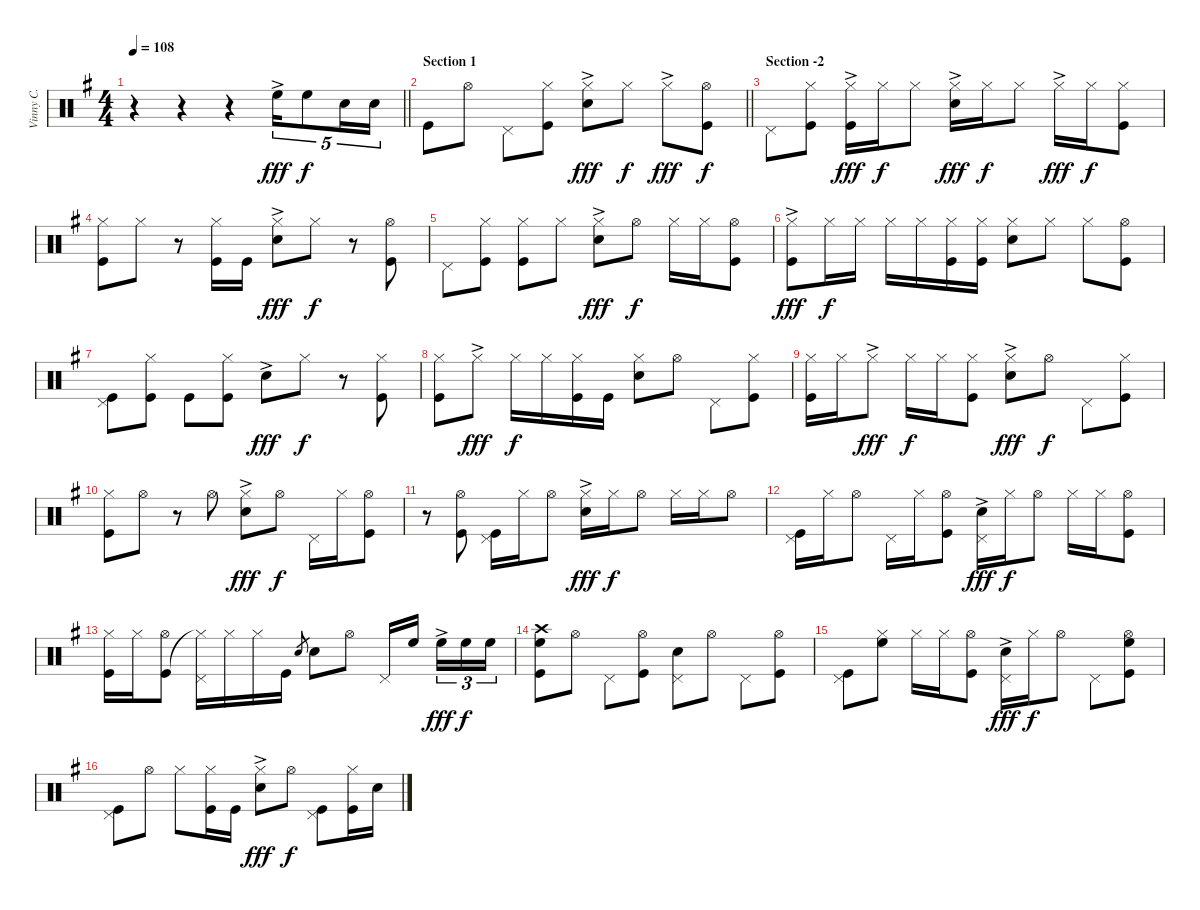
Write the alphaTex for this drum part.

\track ("Vinny C." "Vinny C.") {instrument percussion}
\staff {score}
\articulation defaults
\ts (4 4)
\tempo 108
\clef neutral
\barLineRight lightlight
\ks g
r.4{dy fff} r.4 r.4 "High Floor Tom (hit)"{ac}.16{tu (5 4)} "High Floor Tom (hit)".8{tu (5 4) dy f} "Electric Snare (hit)".16{tu (5 4)} "Electric Snare (hit)".16{tu (5 4)} |
\section ("" "Section 1")
\barLineRight lightlight "Kick (hit)".8 "Hi-Hat (open)".8 "Pedal Hi-Hat (hit)".8
("Hi-Hat (closed)" "Kick (hit)").8 ("Hi-Hat (closed)" "Electric Snare (hit)"{ac}).8{dy fff} "Hi-Hat (closed)".8{dy f} "Hi-Hat (closed)"{ac}.8{dy fff} ("Hi-Hat (open)" "Kick (hit)").8{dy f} |
\section ("" "Section -2")
"Pedal Hi-Hat (hit)".8 ("Hi-Hat (closed)" "Kick (hit)").8 ("Hi-Hat (closed)"{ac} "Kick (hit)").16{dy fff} "Hi-Hat (closed)".16{dy f} "Hi-Hat (closed)".8 ("Hi-Hat (closed)"{ac} "Electric Snare (hit)").16{dy fff} "Hi-Hat (closed)".16{dy f} "Hi-Hat (closed)".8 "Hi-Hat (closed)"{ac}.16{dy fff} "Hi-Hat (closed)".16{dy f} ("Hi-Hat (closed)" "Kick (hit)").8 |
("Hi-Hat (closed)" "Kick (hit)").8 "Hi-Hat (closed)".8 r.8 ("Hi-Hat (closed)" "Kick (hit)").16 "Kick (hit)".16 ("Hi-Hat (closed)"{ac} "Electric Snare (hit)").8{dy fff} "Hi-Hat (closed)".8{dy f} r.8 ("Hi-Hat (open)" "Kick (hit)").8 |
"Pedal Hi-Hat (hit)".8 ("Hi-Hat (closed)" "Kick (hit)").8 ("Hi-Hat (closed)" "Kick (hit)").8 "Hi-Hat (closed)".8 ("Hi-Hat (closed)"{ac} "Electric Snare (hit)").8{dy fff} "Hi-Hat (open)".8{dy f} "Hi-Hat (closed)".16 "Hi-Hat (closed)".16 ("Hi-Hat (open)" "Kick (hit)").8 |
("Hi-Hat (closed)"{ac} "Kick (hit)").8{dy fff} "Hi-Hat (closed)".16{dy f} "Hi-Hat (closed)".16 "Hi-Hat (closed)".16 "Hi-Hat (closed)".16 ("Hi-Hat (closed)" "Kick (hit)").16 ("Hi-Hat (closed)" "Kick (hit)").16 ("Hi-Hat (closed)" "Electric Snare (hit)").8 "Hi-Hat (closed)".8 "Hi-Hat (closed)".8 ("Hi-Hat (open)" "Kick (hit)").8 |
("Pedal Hi-Hat (hit)" "Kick (hit)").8 ("Hi-Hat (closed)" "Kick (hit)").8 "Kick (hit)".8 ("Hi-Hat (closed)" "Kick (hit)").8 "Electric Snare (hit)"{ac}.8{dy fff} "Hi-Hat (closed)".8{dy f} r.8 ("Hi-Hat (closed)" "Kick (hit)").8 |
("Hi-Hat (closed)" "Kick (hit)").8 "Hi-Hat (closed)"{ac}.8{dy fff} "Hi-Hat (closed)".16{dy f} "Hi-Hat (closed)".16 ("Hi-Hat (closed)" "Kick (hit)").16 "Kick (hit)".16 ("Hi-Hat (closed)" "Electric Snare (hit)").8 "Hi-Hat (open)".8 "Pedal Hi-Hat (hit)".8 ("Hi-Hat (closed)" "Kick (hit)").8 |
("Hi-Hat (closed)" "Kick (hit)").16 "Hi-Hat (closed)".16 "Hi-Hat (closed)"{ac}.8{dy fff} "Hi-Hat (closed)".16{dy f} "Hi-Hat (closed)".16 ("Hi-Hat (closed)" "Kick (hit)").8 ("Hi-Hat (closed)"{ac} "Electric Snare (hit)").8{dy fff} "Hi-Hat (open)".8{dy f} "Pedal Hi-Hat (hit)".8 ("Hi-Hat (closed)" "Kick (hit)").8 |
("Hi-Hat (closed)" "Kick (hit)").8 "Hi-Hat (open)".8 r.8 "Hi-Hat (open)".8 ("Hi-Hat (closed)"{ac} "Electric Snare (hit)").8{dy fff} "Hi-Hat (open)".8{dy f} "Pedal Hi-Hat (hit)".16 "Hi-Hat (closed)".16 ("Hi-Hat (open)" "Kick (hit)").8 |
r.8 ("Hi-Hat (open)" "Kick (hit)").8 ("Pedal Hi-Hat (hit)" "Kick (hit)").16 "Hi-Hat (closed)".16 "Hi-Hat (open)".8 ("Hi-Hat (closed)" "Electric Snare (hit)"{ac}).16{dy fff} "Hi-Hat (closed)".16{dy f} "Hi-Hat (open)".8 "Hi-Hat (closed)".16 "Hi-Hat (closed)".16 "Hi-Hat (open)".8 |
("Pedal Hi-Hat (hit)" "Kick (hit)").16 "Hi-Hat (closed)".16 "Hi-Hat (open)".8 "Pedal Hi-Hat (hit)".16 "Hi-Hat (closed)".16 ("Hi-Hat (open)" "Kick (hit)").8 ("Pedal Hi-Hat (hit)" "Electric Snare (hit)"{ac}).16{dy fff} "Hi-Hat (closed)".16{dy f} "Hi-Hat (open)".8 "Hi-Hat (closed)".16 "Hi-Hat (closed)".16 ("Hi-Hat (open)" "Kick (hit)").8 |
("Hi-Hat (closed)" "Kick (hit)").16 "Hi-Hat (closed)".16 ("Hi-Hat (open)" "Kick (hit)").8 ("Pedal Hi-Hat (hit)" "Hi-Hat (closed)"{t}).16 "Hi-Hat (closed)".16 "Hi-Hat (closed)".16 "Kick (hit)".16 "Electric Snare (hit)".8{gr} "Electric Snare (hit)".8 "Hi-Hat (open)".8 "Pedal Hi-Hat (hit)".16 "High Floor Tom (hit)".16 "High Floor Tom (hit)"{ac}.16{tu (3 2) dy fff} "High Floor Tom (hit)".16{tu (3 2) dy f} "High Floor Tom (hit)".16{tu (3 2)} |
("Crash high (hit)" "High Floor Tom (hit)" "Kick (hit)").8 "Hi-Hat (open)".8 "Pedal Hi-Hat (hit)".8 ("Hi-Hat (open)" "Kick (hit)").8 ("Pedal Hi-Hat (hit)" "Electric Snare (hit)").8 "Hi-Hat (open)".8 "Pedal Hi-Hat (hit)".8 ("Hi-Hat (open)" "Kick (hit)").8 |
("Pedal Hi-Hat (hit)" "Kick (hit)").8 ("Hi-Hat (closed)" "High Floor Tom (hit)").8 "Hi-Hat (closed)".16 "Hi-Hat (closed)".16 ("Hi-Hat (open)" "Kick (hit)").8 ("Pedal Hi-Hat (hit)" "Electric Snare (hit)"{ac}).16{dy fff} "Hi-Hat (closed)".16{dy f} "Hi-Hat (open)".8 "Pedal Hi-Hat (hit)".8 ("Hi-Hat (open)" "High Floor Tom (hit)" "Kick (hit)").8 |
("Pedal Hi-Hat (hit)" "Kick (hit)").8 "Hi-Hat (open)".8 "Hi-Hat (closed)".8 ("Hi-Hat (closed)" "Kick (hit)").16 "Kick (hit)".16 ("Hi-Hat (closed)" "Electric Snare (hit)"{ac}).8{dy fff} "Hi-Hat (open)".8{dy f} ("Pedal Hi-Hat (hit)" "Kick (hit)").8 ("Hi-Hat (closed)" "Kick (hit)").16 "Electric Snare (hit)".16
